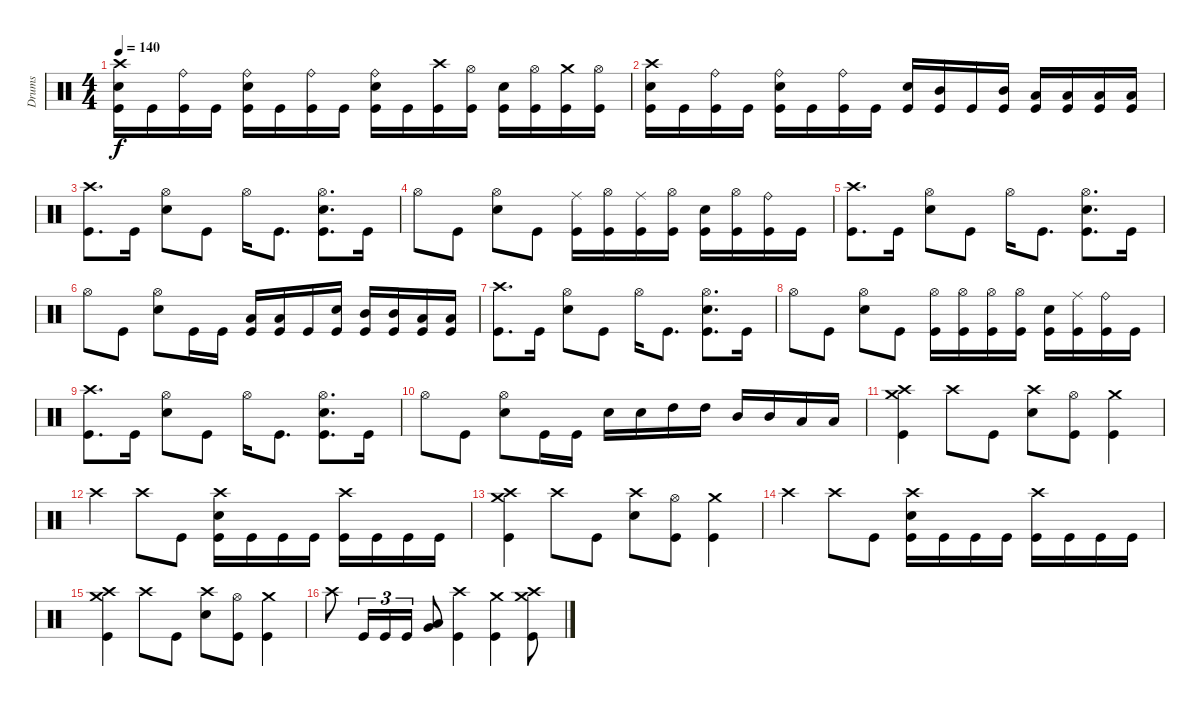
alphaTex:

\track ("Drums" "Drums") {instrument percussion}
\staff {score}
\articulation defaults
\ts (4 4)
\tempo 140
\clef neutral
\ks c
("Crash high (hit)" "Snare (hit) 2" "Kick (hit)").16{dy f} "Kick (hit)".16 ("Ride (bell)" "Kick (hit)").16 "Kick (hit)".16 ("Ride (bell)" "Snare (hit) 2" "Kick (hit)").16 "Kick (hit)".16 ("Ride (bell)" "Kick (hit)").16 "Kick (hit)".16 ("Ride (bell)" "Snare (hit) 2" "Kick (hit)").16 "Kick (hit)".16 ("Crash high (hit)" "Kick (hit)").16 ("Hi-Hat (open)" "Kick (hit)").16 ("Snare (hit) 2" "Kick (hit)").16 ("Hi-Hat (open)" "Kick (hit)").16 ("Crash medium (hit)" "Kick (hit)").16 ("Hi-Hat (open)" "Kick (hit)").16 |
("Crash high (hit)" "Snare (hit) 2" "Kick (hit)").16 "Kick (hit)".16 ("Ride (bell)" "Kick (hit)").16 "Kick (hit)".16 ("Ride (bell)" "Snare (hit) 2" "Kick (hit)").16 "Kick (hit)".16 ("Ride (bell)" "Kick (hit)").16 "Kick (hit)".16 ("Snare (hit) 2" "Kick (hit)").16 ("Mid Tom (hit)" "Kick (hit)").16 "Kick (hit)".16 ("Mid Tom (hit)" "Kick (hit)").16 ("Low Tom (hit)" "Kick (hit)").16 ("Low Tom (hit)" "Kick (hit)").16 ("Low Tom (hit)" "Kick (hit)").16 ("Low Tom (hit)" "Kick (hit)").16 |
("Crash high (hit)" "Kick (hit)").8{d} "Kick (hit)".16 ("Hi-Hat (open)" "Snare (hit) 2").8 "Kick (hit)".8 "Hi-Hat (open)".16 "Kick (hit)".8{d} ("Hi-Hat (open)" "Snare (hit) 2" "Kick (hit)").8{d} "Kick (hit)".16 |
"Hi-Hat (open)".8 "Kick (hit)".8 ("Hi-Hat (open)" "Snare (hit) 2").8 "Kick (hit)".8 ("Ride (middle)" "Kick (hit)").16 ("Hi-Hat (open)" "Kick (hit)").16 ("Ride (middle)" "Kick (hit)").16 ("Hi-Hat (open)" "Kick (hit)").16 ("Snare (hit) 2" "Kick (hit)").16 ("Hi-Hat (open)" "Kick (hit)").16 ("Ride (bell)" "Kick (hit)").16 "Kick (hit)".16 |
("Crash high (hit)" "Kick (hit)").8{d} "Kick (hit)".16 ("Hi-Hat (open)" "Snare (hit) 2").8 "Kick (hit)".8 "Hi-Hat (open)".16 "Kick (hit)".8{d} ("Hi-Hat (open)" "Snare (hit) 2" "Kick (hit)").8{d} "Kick (hit)".16 |
"Hi-Hat (open)".8 "Kick (hit)".8 ("Hi-Hat (open)" "Snare (hit) 2").8 "Kick (hit)".16 "Kick (hit)".16 ("Low Tom (hit)" "Kick (hit)").16 ("Low Tom (hit)" "Kick (hit)").16 "Kick (hit)".16 ("Snare (hit) 2" "Kick (hit)").16 ("Mid Tom (hit)" "Kick (hit)").16 ("Mid Tom (hit)" "Kick (hit)").16 ("Low Tom (hit)" "Kick (hit)").16 ("Low Tom (hit)" "Kick (hit)").16 |
("Crash high (hit)" "Kick (hit)").8{d} "Kick (hit)".16 ("Hi-Hat (open)" "Snare (hit) 2").8 "Kick (hit)".8 "Hi-Hat (open)".16 "Kick (hit)".8{d} ("Hi-Hat (open)" "Snare (hit) 2" "Kick (hit)").8{d} "Kick (hit)".16 |
"Hi-Hat (open)".8 "Kick (hit)".8 ("Hi-Hat (open)" "Snare (hit) 2").8 "Kick (hit)".8 ("Hi-Hat (open)" "Kick (hit)").16 ("Hi-Hat (open)" "Kick (hit)").16 ("Hi-Hat (open)" "Kick (hit)").16 ("Hi-Hat (open)" "Kick (hit)").16 ("Snare (hit) 2" "Kick (hit)").16 ("Ride (middle)" "Kick (hit)").16 ("Ride (bell)" "Kick (hit)").16 "Kick (hit)".16 |
("Crash high (hit)" "Kick (hit)").8{d} "Kick (hit)".16 ("Hi-Hat (open)" "Snare (hit) 2").8 "Kick (hit)".8 "Hi-Hat (open)".16 "Kick (hit)".8{d} ("Hi-Hat (open)" "Snare (hit) 2" "Kick (hit)").8{d} "Kick (hit)".16 |
"Hi-Hat (open)".8 "Kick (hit)".8 ("Hi-Hat (open)" "Snare (hit) 2").8 "Kick (hit)".16 "Kick (hit)".16 "Snare (hit) 2".16 "Snare (hit) 2".16 "High Tom (hit)".16 "High Tom (hit)".16 "Mid Tom (hit)".16 "Mid Tom (hit)".16 "Low Tom (hit)".16 "Low Tom (hit)".16 |
("Crash high (hit)" "Crash medium (hit)" "Kick (hit)").4 "Crash high (hit)".8 "Kick (hit)".8 ("Crash high (hit)" "Snare (hit) 2").8 ("Hi-Hat (open)" "Kick (hit)").8 ("Crash medium (hit)" "Kick (hit)").4 |
"Crash high (hit)".4 "Crash high (hit)".8 "Kick (hit)".8 ("Crash high (hit)" "Snare (hit) 2" "Kick (hit)").16 "Kick (hit)".16 "Kick (hit)".16 "Kick (hit)".16 ("Crash high (hit)" "Kick (hit)").16 "Kick (hit)".16 "Kick (hit)".16 "Kick (hit)".16 |
("Crash high (hit)" "Crash medium (hit)" "Kick (hit)").4 "Crash high (hit)".8 "Kick (hit)".8 ("Crash high (hit)" "Snare (hit) 2").8 ("Hi-Hat (open)" "Kick (hit)").8 ("Crash medium (hit)" "Kick (hit)").4 |
"Crash high (hit)".4 "Crash high (hit)".8 "Kick (hit)".8 ("Crash high (hit)" "Snare (hit) 2" "Kick (hit)").16 "Kick (hit)".16 "Kick (hit)".16 "Kick (hit)".16 ("Crash high (hit)" "Kick (hit)").16 "Kick (hit)".16 "Kick (hit)".16 "Kick (hit)".16 |
("Crash high (hit)" "Crash medium (hit)" "Kick (hit)").4 "Crash high (hit)".8 "Kick (hit)".8 ("Crash high (hit)" "Snare (hit) 2").8 ("Hi-Hat (open)" "Kick (hit)").8 ("Crash medium (hit)" "Kick (hit)").4 |
"Crash high (hit)".8 "Kick (hit)".16{tu (3 2)} "Kick (hit)".16{tu (3 2)} "Kick (hit)".16{tu (3 2)} ("Very Low Tom (hit)" "Low Tom (hit)").8 ("Crash high (hit)" "Kick (hit)").4 ("Crash medium (hit)" "Kick (hit)").4 ("Crash high (hit)" "Crash medium (hit)" "Kick (hit)").8
